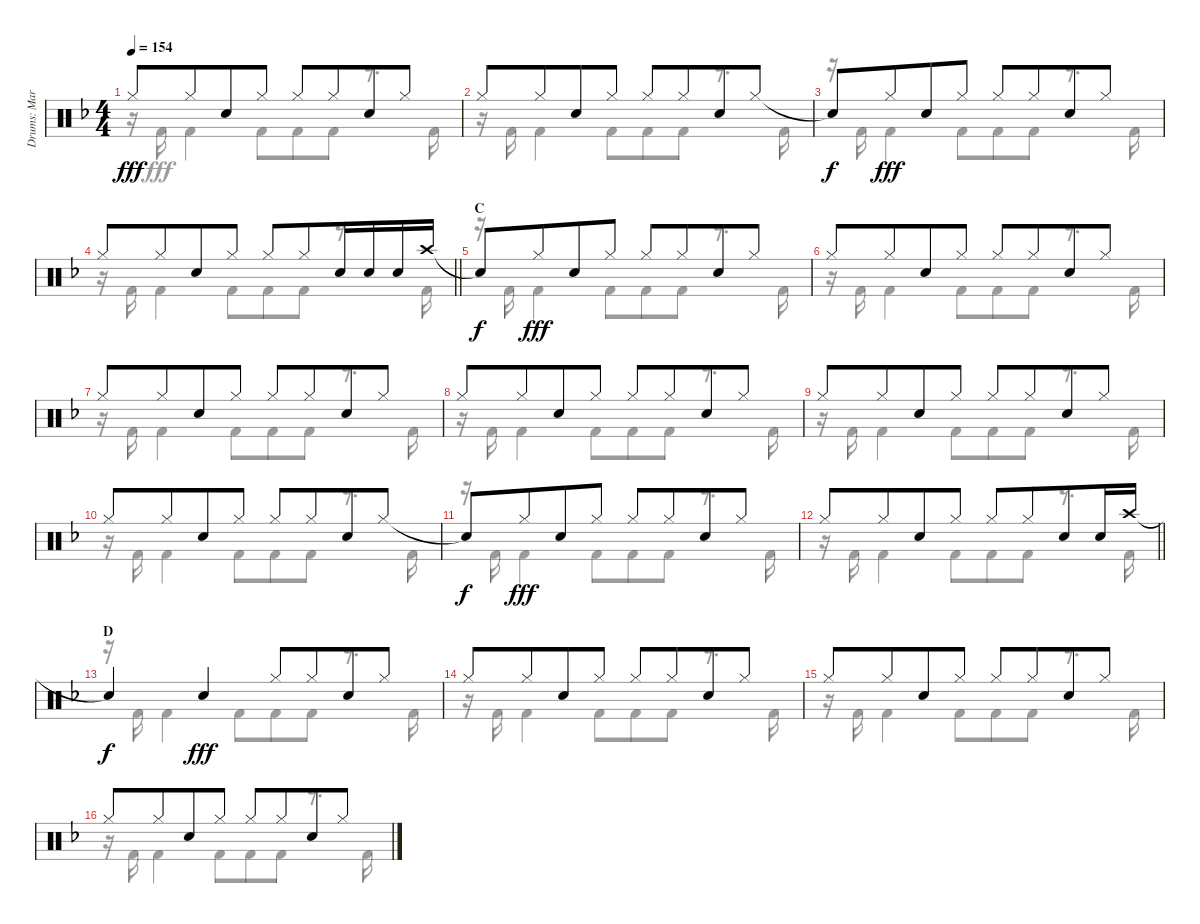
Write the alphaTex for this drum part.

\track ("Drums: Mark" "Drums: Mar") {instrument percussion}
\staff {score}
\articulation defaults
\voice
\ts (4 4)
\tempo 154
\clef neutral
\ks f "Hi-Hat (closed)".8{dy fff} "Hi-Hat (closed)".8{beam merge} "Snare (hit) 2".8 "Hi-Hat (closed)".8 "Hi-Hat (closed)".8 "Hi-Hat (closed)".8{beam merge} "Snare (hit) 2".8 "Hi-Hat (closed)".8
|
"Hi-Hat (closed)".8 "Hi-Hat (closed)".8{beam merge} "Snare (hit) 2".8 "Hi-Hat (closed)".8 "Hi-Hat (closed)".8 "Hi-Hat (closed)".8{beam merge} "Snare (hit) 2".8 "Hi-Hat (closed)".8 |
"Snare (hit)"{t}.8{dy f} "Hi-Hat (closed)".8{dy fff beam merge} "Snare (hit) 2".8 "Hi-Hat (closed)".8 "Hi-Hat (closed)".8 "Hi-Hat (closed)".8{beam merge} "Snare (hit) 2".8 "Hi-Hat (closed)".8 |
\barLineRight lightlight "Hi-Hat (closed)".8 "Hi-Hat (closed)".8{beam merge} "Snare (hit) 2".8 "Hi-Hat (closed)".8 "Hi-Hat (closed)".8 "Hi-Hat (closed)".8{beam merge} "Snare (hit) 2".16 "Snare (hit) 2".16 "Snare (hit) 2".16 "Crash high (hit)".16
|
\section ("" "C")
"Snare (hit)"{t}.8{dy f} "Hi-Hat (closed)".8{dy fff beam merge} "Snare (hit) 2".8 "Hi-Hat (closed)".8 "Hi-Hat (closed)".8 "Hi-Hat (closed)".8{beam merge} "Snare (hit) 2".8 "Hi-Hat (closed)".8 |
"Hi-Hat (closed)".8 "Hi-Hat (closed)".8{beam merge} "Snare (hit) 2".8 "Hi-Hat (closed)".8 "Hi-Hat (closed)".8 "Hi-Hat (closed)".8{beam merge} "Snare (hit) 2".8 "Hi-Hat (closed)".8 |
"Hi-Hat (closed)".8 "Hi-Hat (closed)".8{beam merge} "Snare (hit) 2".8 "Hi-Hat (closed)".8 "Hi-Hat (closed)".8 "Hi-Hat (closed)".8{beam merge} "Snare (hit) 2".8 "Hi-Hat (closed)".8 |
"Hi-Hat (closed)".8 "Hi-Hat (closed)".8{beam merge} "Snare (hit) 2".8 "Hi-Hat (closed)".8 "Hi-Hat (closed)".8 "Hi-Hat (closed)".8{beam merge} "Snare (hit) 2".8 "Hi-Hat (closed)".8 |
"Hi-Hat (closed)".8 "Hi-Hat (closed)".8{beam merge} "Snare (hit) 2".8 "Hi-Hat (closed)".8 "Hi-Hat (closed)".8 "Hi-Hat (closed)".8{beam merge} "Snare (hit) 2".8 "Hi-Hat (closed)".8 |
"Hi-Hat (closed)".8 "Hi-Hat (closed)".8{beam merge} "Snare (hit) 2".8 "Hi-Hat (closed)".8 "Hi-Hat (closed)".8 "Hi-Hat (closed)".8{beam merge} "Snare (hit) 2".8 "Hi-Hat (closed)".8 |
"Snare (hit)"{t}.8{dy f} "Hi-Hat (closed)".8{dy fff beam merge} "Snare (hit) 2".8 "Hi-Hat (closed)".8 "Hi-Hat (closed)".8 "Hi-Hat (closed)".8{beam merge} "Snare (hit) 2".8 "Hi-Hat (closed)".8 |
\barLineRight lightlight "Hi-Hat (closed)".8 "Hi-Hat (closed)".8{beam merge} "Snare (hit) 2".8 "Hi-Hat (closed)".8 "Hi-Hat (closed)".8 "Hi-Hat (closed)".8{beam merge} "Snare (hit) 2".8 "Snare (hit) 2".16 "Crash high (hit)".16
|
\section ("" "D")
"Snare (hit)"{t}.4{dy f beam merge} "Snare (hit) 2".4{dy fff} "Hi-Hat (closed)".8 "Hi-Hat (closed)".8{beam merge} "Snare (hit) 2".8 "Hi-Hat (closed)".8 |
"Hi-Hat (closed)".8 "Hi-Hat (closed)".8{beam merge} "Snare (hit) 2".8 "Hi-Hat (closed)".8 "Hi-Hat (closed)".8 "Hi-Hat (closed)".8{beam merge} "Snare (hit) 2".8 "Hi-Hat (closed)".8 |
"Hi-Hat (closed)".8 "Hi-Hat (closed)".8{beam merge} "Snare (hit) 2".8 "Hi-Hat (closed)".8 "Hi-Hat (closed)".8 "Hi-Hat (closed)".8{beam merge} "Snare (hit) 2".8 "Hi-Hat (closed)".8 |
"Hi-Hat (closed)".8 "Hi-Hat (closed)".8{beam merge} "Snare (hit) 2".8 "Hi-Hat (closed)".8 "Hi-Hat (closed)".8 "Hi-Hat (closed)".8{beam merge} "Snare (hit) 2".8 "Hi-Hat (closed)".8
\voice
\clef neutral
\ottava regular
\simile none
\ks f
r.16{dy fff} "Kick (hit) 2".16 "Kick (hit) 2".4 "Kick (hit) 2".8{beam merge} "Kick (hit) 2".8 "Kick (hit) 2".8 r.8{d} "Kick (hit) 2".16 |
r.16 "Kick (hit) 2".16 "Kick (hit) 2".4 "Kick (hit) 2".8{beam merge} "Kick (hit) 2".8 "Kick (hit) 2".8 r.8{d} "Kick (hit) 2".16 |
r.16 "Kick (hit) 2".16 "Kick (hit) 2".4 "Kick (hit) 2".8{beam merge} "Kick (hit) 2".8 "Kick (hit) 2".8 r.8{d} "Kick (hit) 2".16 |
\barLineRight lightlight
r.16 "Kick (hit) 2".16 "Kick (hit) 2".4 "Kick (hit) 2".8{beam merge} "Kick (hit) 2".8 "Kick (hit) 2".8 r.8{d} "Kick (hit) 2".16 |
r.16 "Kick (hit) 2".16 "Kick (hit) 2".4 "Kick (hit) 2".8{beam merge} "Kick (hit) 2".8 "Kick (hit) 2".8 r.8{d} "Kick (hit) 2".16 |
r.16 "Kick (hit) 2".16 "Kick (hit) 2".4 "Kick (hit) 2".8{beam merge} "Kick (hit) 2".8 "Kick (hit) 2".8 r.8{d} "Kick (hit) 2".16 |
r.16 "Kick (hit) 2".16 "Kick (hit) 2".4 "Kick (hit) 2".8{beam merge} "Kick (hit) 2".8 "Kick (hit) 2".8 r.8{d} "Kick (hit) 2".16 |
r.16 "Kick (hit) 2".16 "Kick (hit) 2".4 "Kick (hit) 2".8{beam merge} "Kick (hit) 2".8 "Kick (hit) 2".8 r.8{d} "Kick (hit) 2".16 |
r.16 "Kick (hit) 2".16 "Kick (hit) 2".4 "Kick (hit) 2".8{beam merge} "Kick (hit) 2".8 "Kick (hit) 2".8 r.8{d} "Kick (hit) 2".16 |
r.16 "Kick (hit) 2".16 "Kick (hit) 2".4 "Kick (hit) 2".8{beam merge} "Kick (hit) 2".8 "Kick (hit) 2".8 r.8{d} "Kick (hit) 2".16 |
r.16 "Kick (hit) 2".16 "Kick (hit) 2".4 "Kick (hit) 2".8{beam merge} "Kick (hit) 2".8 "Kick (hit) 2".8 r.8{d} "Kick (hit) 2".16 |
\barLineRight lightlight
r.16 "Kick (hit) 2".16 "Kick (hit) 2".4 "Kick (hit) 2".8{beam merge} "Kick (hit) 2".8 "Kick (hit) 2".8 r.8{d} "Kick (hit) 2".16 |
r.16 "Kick (hit) 2".16 "Kick (hit) 2".4 "Kick (hit) 2".8{beam merge} "Kick (hit) 2".8 "Kick (hit) 2".8 r.8{d} "Kick (hit) 2".16 |
r.16 "Kick (hit) 2".16 "Kick (hit) 2".4 "Kick (hit) 2".8{beam merge} "Kick (hit) 2".8 "Kick (hit) 2".8 r.8{d} "Kick (hit) 2".16 |
r.16 "Kick (hit) 2".16 "Kick (hit) 2".4 "Kick (hit) 2".8{beam merge} "Kick (hit) 2".8 "Kick (hit) 2".8 r.8{d} "Kick (hit) 2".16 |
r.16 "Kick (hit) 2".16 "Kick (hit) 2".4 "Kick (hit) 2".8{beam merge} "Kick (hit) 2".8 "Kick (hit) 2".8 r.8{d} "Kick (hit) 2".16
